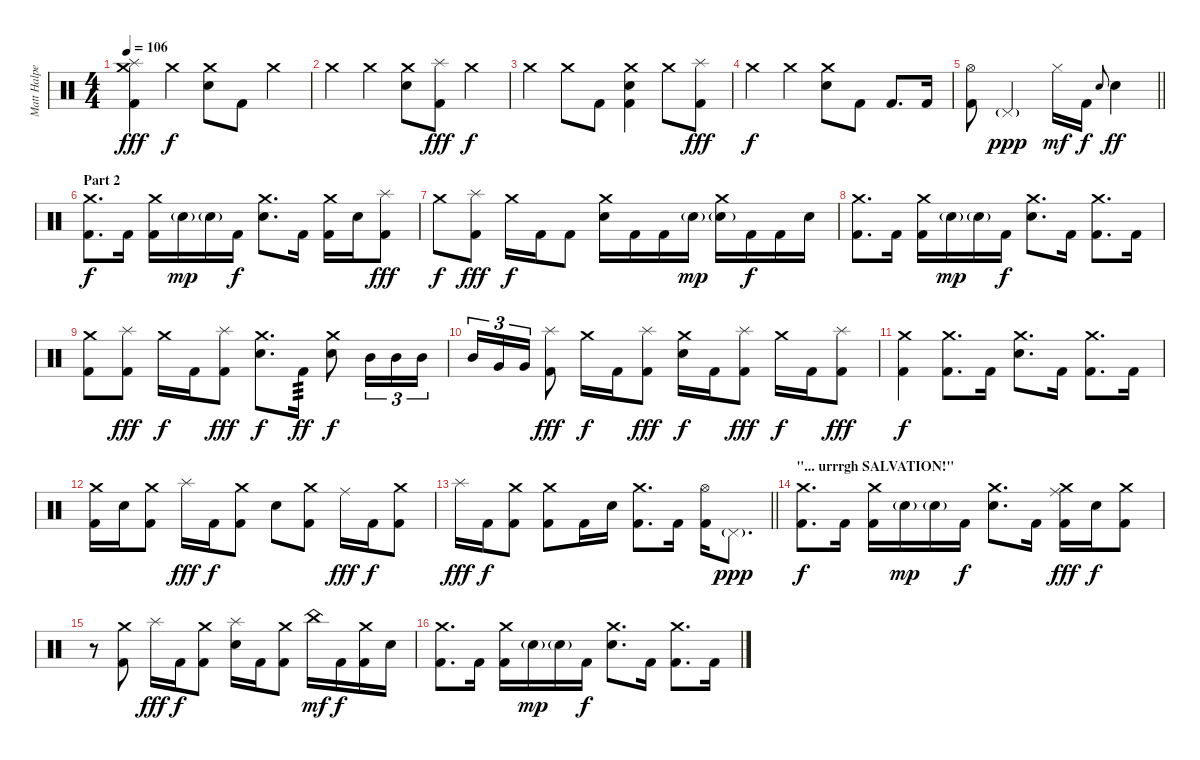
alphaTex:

\track ("Matt Halpern - Drums" "Matt Halpe") {instrument percussion}
\staff {score}
\articulation defaults
\ts (4 4)
\tempo 106
\clef neutral
\ks c
("Crash medium (hit)" "Splash (hit)" "Kick (hit) 2").4{dy fff} "Crash medium (hit)".4{dy f} ("Crash medium (hit)" "Electric Snare (hit)").8 "Kick (hit) 2".8 "Crash medium (hit)".4 |
"Crash medium (hit)".4 "Crash medium (hit)".4 ("Crash medium (hit)" "Electric Snare (hit)").8 ("Splash (hit)" "Kick (hit) 2").8{dy fff} "Crash medium (hit)".4{dy f} |
"Crash medium (hit)".4 "Crash medium (hit)".8 "Kick (hit) 2".8 ("Crash medium (hit)" "Electric Snare (hit)" "Kick (hit) 2").4 "Crash medium (hit)".8 ("Splash (hit)" "Kick (hit) 2").8{dy fff} |
"Crash medium (hit)".4{dy f} "Crash medium (hit)".4 ("Crash medium (hit)" "Electric Snare (hit)").8 "Kick (hit) 2".8 "Kick (hit) 2".8{d} "Kick (hit) 2".16 |
\barLineRight lightlight
("Hi-Hat (open)" "Kick (hit) 2").8 "Pedal Hi-Hat (hit)"{g}.2{dy ppp} "Hi-Hat (closed)".16{dy mf} "Kick (hit) 2".16{dy f} "Electric Snare (hit)".8{gr onbeat} "Electric Snare (hit)".4{dy ff} |
\section ("" "Part 2")
("Crash medium (hit)" "Kick (hit) 2").8{d dy f} "Kick (hit) 2".16 ("Crash medium (hit)" "Kick (hit) 2").16 "Electric Snare (hit)"{g}.16{dy mp} "Electric Snare (hit)"{g}.16 "Kick (hit) 2".16{dy f} ("Crash medium (hit)" "Electric Snare (hit)").8{d} "Kick (hit) 2".16 ("Crash medium (hit)" "Kick (hit) 2").16 "Electric Snare (hit)".16 ("Splash (hit)" "Kick (hit) 2").8{dy fff} |
"Crash medium (hit)".8{dy f} ("Splash (hit)" "Kick (hit) 2").8{dy fff} "Crash medium (hit)".16{dy f} "Kick (hit) 2".16 "Kick (hit) 2".8 ("Crash medium (hit)" "Electric Snare (hit)").16 "Kick (hit) 2".16 "Kick (hit) 2".16 "Electric Snare (hit)"{g}.16{dy mp} ("Crash medium (hit)" "Electric Snare (hit)"{g}).16 "Kick (hit) 2".16{dy f} "Kick (hit) 2".16 "Electric Snare (hit)".16 |
("Crash medium (hit)" "Kick (hit) 2").8{d} "Kick (hit) 2".16 ("Crash medium (hit)" "Kick (hit) 2").16 "Electric Snare (hit)"{g}.16{dy mp} "Electric Snare (hit)"{g}.16 "Kick (hit) 2".16{dy f} ("Crash medium (hit)" "Electric Snare (hit)").8{d} "Kick (hit) 2".16 ("Crash medium (hit)" "Kick (hit) 2").8{d} "Kick (hit) 2".16 |
("Crash medium (hit)" "Kick (hit) 2").8 ("Splash (hit)" "Kick (hit) 2").8{dy fff} "Crash medium (hit)".16{dy f} "Kick (hit) 2".16 ("Splash (hit)" "Kick (hit) 2").8{dy fff} ("Crash medium (hit)" "Electric Snare (hit)").8{d dy f} "Kick (hit) 2".16{tp 3 dy ff} ("Crash medium (hit)" "Electric Snare (hit)").8{dy f} "Mid Tom (hit)".16{tu (3 2)} "Mid Tom (hit)".16{tu (3 2)} "Mid Tom (hit)".16{tu (3 2)} |
"Mid Tom (hit)".16{tu (3 2)} "Very Low Tom (hit)".16{tu (3 2)} "Very Low Tom (hit)".16{tu (3 2)} ("Splash (hit)" "Kick (hit) 2").8{dy fff} "Crash medium (hit)".16{dy f} "Kick (hit) 2".16 ("Splash (hit)" "Kick (hit) 2").8{dy fff} ("Crash medium (hit)" "Electric Snare (hit)").16{dy f} "Kick (hit) 2".16 ("Splash (hit)" "Kick (hit) 2").8{dy fff} "Crash medium (hit)".16{dy f} "Kick (hit) 2".16 ("Splash (hit)" "Kick (hit) 2").8{dy fff} |
("Crash medium (hit)" "Kick (hit) 2").4{dy f} ("Crash medium (hit)" "Kick (hit) 2").8{d} "Kick (hit) 2".16 ("Crash medium (hit)" "Electric Snare (hit)").8{d} "Kick (hit) 2".16 ("Crash medium (hit)" "Kick (hit) 2").8{d} "Kick (hit) 2".16 |
("Crash medium (hit)" "Kick (hit) 2").16 "Electric Snare (hit)".16 ("Crash medium (hit)" "Kick (hit) 2").8 "Splash (hit)".16{dy fff} "Kick (hit) 2".16{dy f} ("Crash medium (hit)" "Kick (hit) 2").8 "Electric Snare (hit)".8 ("Crash medium (hit)" "Kick (hit) 2").8 "Ride (middle)".16{dy fff} "Kick (hit) 2".16{dy f} ("Crash medium (hit)" "Kick (hit) 2").8 |
\barLineRight lightlight "Splash (hit)".16{dy fff} "Kick (hit) 2".16{dy f}
("Crash medium (hit)" "Kick (hit) 2").8 ("Crash medium (hit)" "Kick (hit) 2").8 "Kick (hit) 2".16 "Electric Snare (hit)".16 ("Crash medium (hit)" "Kick (hit) 2").8{d} "Kick (hit) 2".16 ("Hi-Hat (open)" "Kick (hit) 2").16 "Pedal Hi-Hat (hit)"{g}.8{d dy ppp} |
\section ("" "\"... urrrgh SALVATION!\"")
("Crash medium (hit)" "Kick (hit) 2").8{d dy f} "Kick (hit) 2".16 ("Crash medium (hit)" "Kick (hit) 2").16 "Electric Snare (hit)"{g}.16{dy mp} "Electric Snare (hit)"{g}.16 "Kick (hit) 2".16{dy f} ("Crash medium (hit)" "Electric Snare (hit)").8{d} "Kick (hit) 2".16 ("Crash medium (hit)" "Ride (middle)" "Kick (hit) 2").16{dy fff} "Electric Snare (hit)".16{dy f} ("Crash medium (hit)" "Kick (hit) 2").8 |
r.8 ("Crash medium (hit)" "Kick (hit) 2").8 "Splash (hit)".16{dy fff} "Kick (hit) 2".16{dy f} ("Crash medium (hit)" "Kick (hit) 2").8 ("Splash (hit)" "Electric Snare (hit)").16 "Kick (hit) 2".16 ("Crash medium (hit)" "Kick (hit) 2").8 "China (hit)".16{dy mf} "Kick (hit) 2".16{dy f} ("Crash medium (hit)" "Kick (hit) 2").16 "Electric Snare (hit)".16 |
("Crash medium (hit)" "Kick (hit) 2").8{d} "Kick (hit) 2".16 ("Crash medium (hit)" "Kick (hit) 2").16 "Electric Snare (hit)"{g}.16{dy mp} "Electric Snare (hit)"{g}.16 "Kick (hit) 2".16{dy f} ("Crash medium (hit)" "Electric Snare (hit)").8{d} "Kick (hit) 2".16 ("Crash medium (hit)" "Kick (hit) 2").8{d} "Kick (hit) 2".16
